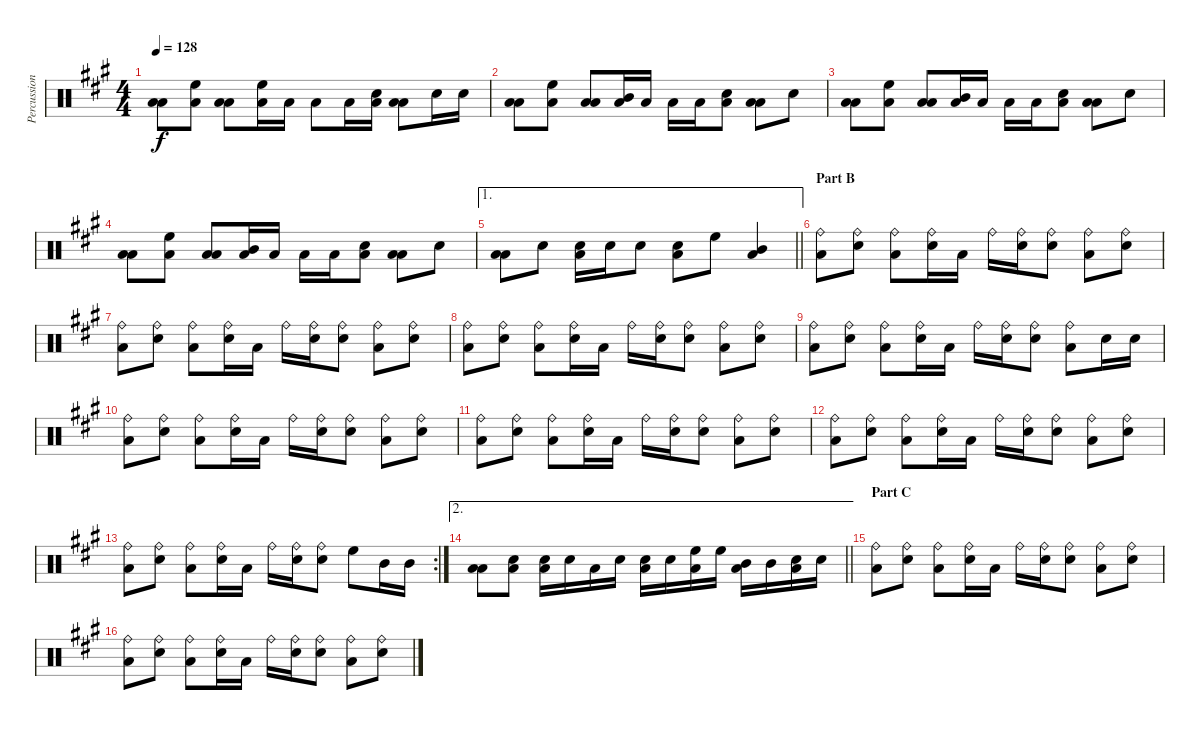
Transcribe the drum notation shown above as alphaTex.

\track ("Percussions" "Percussion") {instrument percussion}
\staff {score}
\articulation defaults
\ts (4 4)
\tempo 128
\clef neutral
\ks a
("Low Tom (hit)" "Low Floor Tom (hit)").8{dy f} ("High Floor Tom (hit)" "Low Tom (hit)").8 ("Low Floor Tom (hit)" "Low Tom (hit)").8 ("High Floor Tom (hit)" "Low Tom (hit)").16 "Low Floor Tom (hit)".16 "Low Tom (hit)".8 "Low Floor Tom (hit)".16 ("Low Tom (hit)" "Snare (hit) 2").16 ("Low Tom (hit)" "Low Floor Tom (hit)").8 "Snare (hit) 2".16 "Snare (hit) 2".16 |
("Low Tom (hit)" "Low Floor Tom (hit)").8 ("High Floor Tom (hit)" "Low Tom (hit)").8 ("Low Floor Tom (hit)" "Low Tom (hit)").8 ("Mid Tom (hit)" "Low Tom (hit)").16 "Low Floor Tom (hit)".16 "Low Tom (hit)".16 "Low Floor Tom (hit)".16 ("Snare (hit) 2" "Low Tom (hit)").8 ("Low Floor Tom (hit)" "Low Tom (hit)").8 "Snare (hit) 2".8 |
("Low Tom (hit)" "Low Floor Tom (hit)").8 ("High Floor Tom (hit)" "Low Tom (hit)").8 ("Low Floor Tom (hit)" "Low Tom (hit)").8 ("Mid Tom (hit)" "Low Tom (hit)").16 "Low Floor Tom (hit)".16 "Low Tom (hit)".16 "Low Floor Tom (hit)".16 ("Snare (hit) 2" "Low Tom (hit)").8 ("Low Floor Tom (hit)" "Low Tom (hit)").8 "Snare (hit) 2".8 |
("Low Tom (hit)" "Low Floor Tom (hit)").8 ("High Floor Tom (hit)" "Low Tom (hit)").8 ("Low Floor Tom (hit)" "Low Tom (hit)").8 ("Mid Tom (hit)" "Low Tom (hit)").16 "Low Floor Tom (hit)".16 "Low Tom (hit)".16 "Low Floor Tom (hit)".16 ("Snare (hit) 2" "Low Tom (hit)").8 ("Low Floor Tom (hit)" "Low Tom (hit)").8 "Snare (hit) 2".8 |
\ae 1
\barLineRight lightlight
("Low Tom (hit)" "Low Floor Tom (hit)").8 "Snare (hit) 2".8 ("Snare (hit) 2" "Low Floor Tom (hit)").16 "Snare (hit) 2".16 "Snare (hit) 2".8 ("Snare (hit) 2" "Low Floor Tom (hit)").8 "High Floor Tom (hit)".8 ("Mid Tom (hit)" "Low Floor Tom (hit)").4 |
\section ("" "Part B")
("Ride (bell)" "Low Floor Tom (hit)").8 ("Ride (bell)" "Snare (hit) 2").8 ("Ride (bell)" "Low Floor Tom (hit)").8 ("Ride (bell)" "Snare (hit) 2").16 "Low Floor Tom (hit)".16 "Ride (bell)".16 ("Ride (bell)" "Snare (hit) 2").16 ("Ride (bell)" "Snare (hit) 2").8 ("Ride (bell)" "Low Floor Tom (hit)").8 ("Ride (bell)" "Snare (hit) 2").8 |
("Ride (bell)" "Low Floor Tom (hit)").8 ("Ride (bell)" "Snare (hit) 2").8 ("Ride (bell)" "Low Floor Tom (hit)").8 ("Ride (bell)" "Snare (hit) 2").16 "Low Floor Tom (hit)".16 "Ride (bell)".16 ("Ride (bell)" "Snare (hit) 2").16 ("Ride (bell)" "Snare (hit) 2").8 ("Ride (bell)" "Low Floor Tom (hit)").8 ("Ride (bell)" "Snare (hit) 2").8 |
("Ride (bell)" "Low Floor Tom (hit)").8 ("Ride (bell)" "Snare (hit) 2").8 ("Ride (bell)" "Low Floor Tom (hit)").8 ("Ride (bell)" "Snare (hit) 2").16 "Low Floor Tom (hit)".16 "Ride (bell)".16 ("Ride (bell)" "Snare (hit) 2").16 ("Ride (bell)" "Snare (hit) 2").8 ("Ride (bell)" "Low Floor Tom (hit)").8 ("Ride (bell)" "Snare (hit) 2").8 |
("Ride (bell)" "Low Floor Tom (hit)").8 ("Ride (bell)" "Snare (hit) 2").8 ("Ride (bell)" "Low Floor Tom (hit)").8 ("Ride (bell)" "Snare (hit) 2").16 "Low Floor Tom (hit)".16 "Ride (bell)".16 ("Ride (bell)" "Snare (hit) 2").16 ("Ride (bell)" "Snare (hit) 2").8 ("Ride (bell)" "Low Floor Tom (hit)").8 "Snare (hit) 2".16 "Snare (hit) 2".16 |
("Ride (bell)" "Low Floor Tom (hit)").8 ("Ride (bell)" "Snare (hit) 2").8 ("Ride (bell)" "Low Floor Tom (hit)").8 ("Ride (bell)" "Snare (hit) 2").16 "Low Floor Tom (hit)".16 "Ride (bell)".16 ("Ride (bell)" "Snare (hit) 2").16 ("Ride (bell)" "Snare (hit) 2").8 ("Ride (bell)" "Low Floor Tom (hit)").8 ("Ride (bell)" "Snare (hit) 2").8 |
("Ride (bell)" "Low Floor Tom (hit)").8 ("Ride (bell)" "Snare (hit) 2").8 ("Ride (bell)" "Low Floor Tom (hit)").8 ("Ride (bell)" "Snare (hit) 2").16 "Low Floor Tom (hit)".16 "Ride (bell)".16 ("Ride (bell)" "Snare (hit) 2").16 ("Ride (bell)" "Snare (hit) 2").8 ("Ride (bell)" "Low Floor Tom (hit)").8 ("Ride (bell)" "Snare (hit) 2").8 |
("Ride (bell)" "Low Floor Tom (hit)").8 ("Ride (bell)" "Snare (hit) 2").8 ("Ride (bell)" "Low Floor Tom (hit)").8 ("Ride (bell)" "Snare (hit) 2").16 "Low Floor Tom (hit)".16 "Ride (bell)".16 ("Ride (bell)" "Snare (hit) 2").16 ("Ride (bell)" "Snare (hit) 2").8 ("Ride (bell)" "Low Floor Tom (hit)").8 ("Ride (bell)" "Snare (hit) 2").8 |
\rc 2
("Ride (bell)" "Low Floor Tom (hit)").8 ("Ride (bell)" "Snare (hit) 2").8 ("Ride (bell)" "Low Floor Tom (hit)").8 ("Ride (bell)" "Snare (hit) 2").16 "Low Floor Tom (hit)".16 "Ride (bell)".16 ("Ride (bell)" "Snare (hit) 2").16 ("Ride (bell)" "Snare (hit) 2").8 "High Floor Tom (hit)".8 "Mid Tom (hit)".16 "Mid Tom (hit)".16 |
\ae 2
\barLineRight lightlight
("Low Tom (hit)" "Low Floor Tom (hit)").8 ("Low Floor Tom (hit)" "Snare (hit) 2").8 ("Snare (hit) 2" "Low Floor Tom (hit)").16 "Snare (hit) 2".16 "Low Floor Tom (hit)".16 "Snare (hit) 2".16 ("Snare (hit) 2" "Low Floor Tom (hit)").16 "Snare (hit) 2".16 ("High Floor Tom (hit)" "Low Floor Tom (hit)").16 "High Floor Tom (hit)".16 ("Mid Tom (hit)" "Low Floor Tom (hit)").16 "Mid Tom (hit)".16 ("Low Floor Tom (hit)" "Snare (hit) 2").16 "Snare (hit) 2".16 |
\section ("" "Part C")
("Ride (bell)" "Low Floor Tom (hit)").8 ("Ride (bell)" "Snare (hit) 2").8 ("Ride (bell)" "Low Floor Tom (hit)").8 ("Ride (bell)" "Snare (hit) 2").16 "Low Floor Tom (hit)".16 "Ride (bell)".16 ("Ride (bell)" "Snare (hit) 2").16 ("Ride (bell)" "Snare (hit) 2").8 ("Ride (bell)" "Low Floor Tom (hit)").8 ("Ride (bell)" "Snare (hit) 2").8 |
("Ride (bell)" "Low Floor Tom (hit)").8 ("Ride (bell)" "Snare (hit) 2").8 ("Ride (bell)" "Low Floor Tom (hit)").8 ("Ride (bell)" "Snare (hit) 2").16 "Low Floor Tom (hit)".16 "Ride (bell)".16 ("Ride (bell)" "Snare (hit) 2").16 ("Ride (bell)" "Snare (hit) 2").8 ("Ride (bell)" "Low Floor Tom (hit)").8 ("Ride (bell)" "Snare (hit) 2").8
